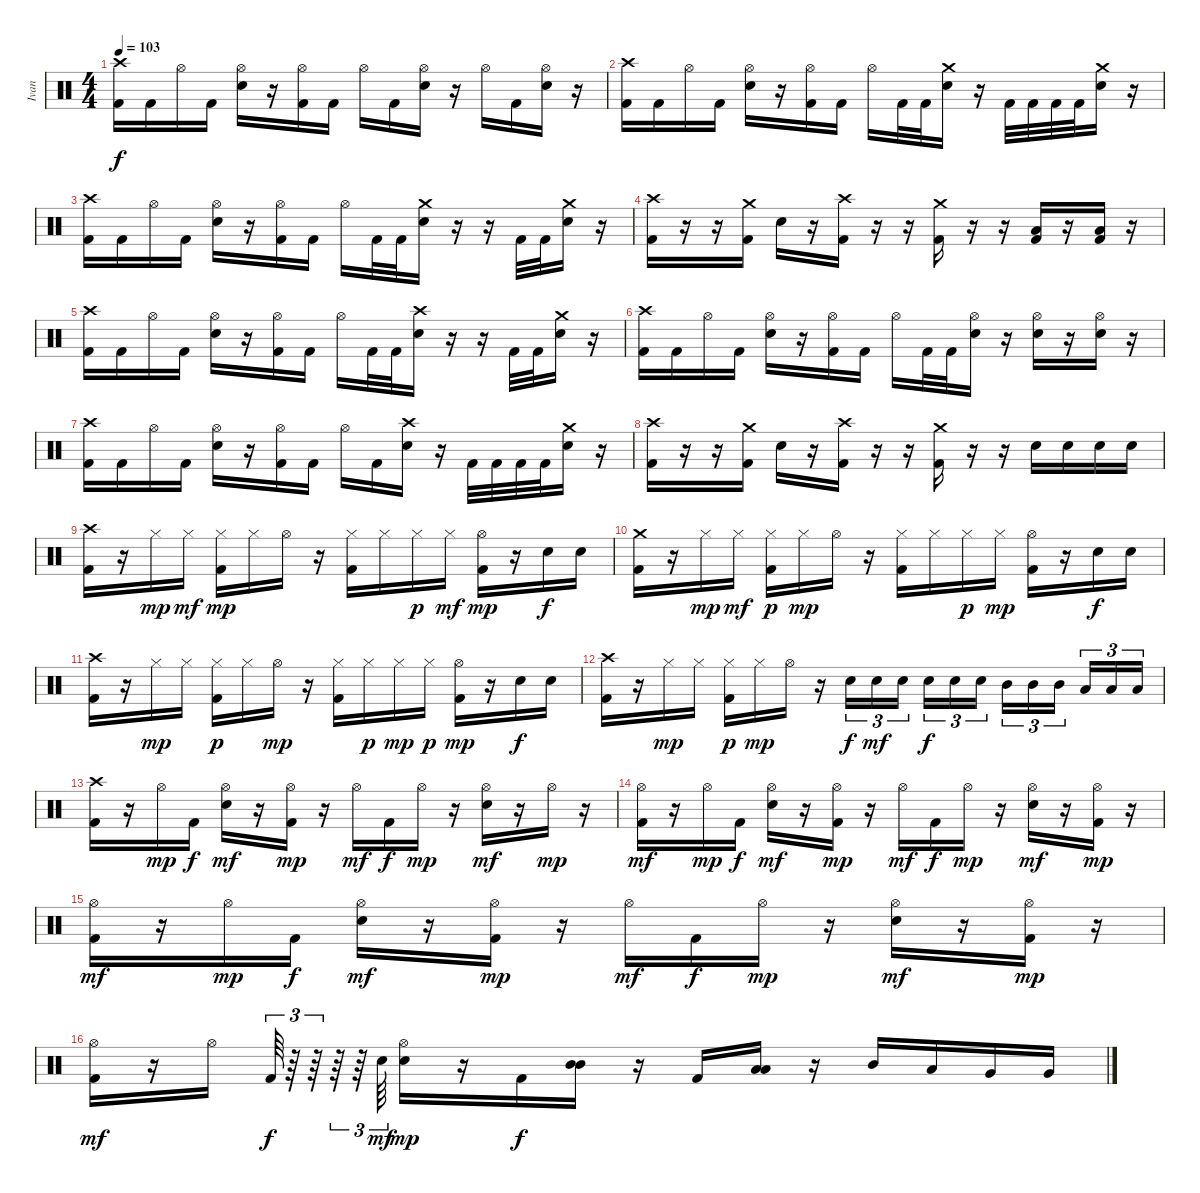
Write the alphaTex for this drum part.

\track ("Ivan" "Ivan") {instrument percussion}
\staff {score}
\articulation defaults
\ts (4 4)
\tempo 103
\clef neutral
\ks c
("Kick (hit) 2" "Crash high (hit)").16{dy f} "Kick (hit) 2".16 "Hi-Hat (open)".16 "Kick (hit) 2".16 ("Snare (hit) 2" "Hi-Hat (open)").16 r.16 ("Kick (hit) 2" "Hi-Hat (open)").16 "Kick (hit) 2".16 "Hi-Hat (open)".16 "Kick (hit) 2".16 ("Snare (hit) 2" "Hi-Hat (open)").16 r.16 "Hi-Hat (open)".16 "Kick (hit) 2".16 ("Snare (hit) 2" "Hi-Hat (open)").16 r.16 |
("Crash high (hit)" "Kick (hit) 2").16 "Kick (hit) 2".16 "Hi-Hat (open)".16 "Kick (hit) 2".16 ("Hi-Hat (open)" "Snare (hit) 2").16 r.16 ("Hi-Hat (open)" "Kick (hit) 2").16 "Kick (hit) 2".16 "Hi-Hat (open)".16 "Kick (hit) 2".32 "Kick (hit) 2".32 ("Crash medium (hit)" "Snare (hit) 2").16 r.16 "Kick (hit) 2".32 "Kick (hit) 2".32 "Kick (hit) 2".32 "Kick (hit) 2".32 ("Crash medium (hit)" "Snare (hit) 2").16 r.16 |
("Kick (hit) 2" "Crash high (hit)").16 "Kick (hit) 2".16 "Hi-Hat (open)".16 "Kick (hit) 2".16 ("Snare (hit) 2" "Hi-Hat (open)").16 r.16 ("Kick (hit) 2" "Hi-Hat (open)").16 "Kick (hit) 2".16 "Hi-Hat (open)".16 "Kick (hit) 2".32 "Kick (hit) 2".32 ("Snare (hit) 2" "Crash medium (hit)").16 r.16 r.16 "Kick (hit) 2".32 "Kick (hit) 2".32 ("Snare (hit) 2" "Crash medium (hit)").16 r.16 |
("Kick (hit) 2" "Crash high (hit)").16 r.16 r.16 ("Kick (hit) 2" "Crash medium (hit)").16 "Snare (hit) 2".16 r.16 ("Kick (hit) 2" "Crash high (hit)").16 r.16 r.16 ("Kick (hit) 2" "Crash medium (hit)").16 r.16 r.16 ("Low Floor Tom (hit)" "Kick (hit) 2").16 r.16 ("Low Floor Tom (hit)" "Kick (hit) 2").16 r.16 |
("Kick (hit) 2" "Crash high (hit)").16 "Kick (hit) 2".16 "Hi-Hat (open)".16 "Kick (hit) 2".16 ("Snare (hit) 2" "Hi-Hat (open)").16 r.16 ("Kick (hit) 2" "Hi-Hat (open)").16 "Kick (hit) 2".16 "Hi-Hat (open)".16 "Kick (hit) 2".32 "Kick (hit) 2".32 ("Snare (hit) 2" "Crash high (hit)").16 r.16 r.16 "Kick (hit) 2".32 "Kick (hit) 2".32 ("Snare (hit) 2" "Crash medium (hit)").16 r.16 |
("Crash high (hit)" "Kick (hit) 2").16 "Kick (hit) 2".16 "Hi-Hat (open)".16 "Kick (hit) 2".16 ("Hi-Hat (open)" "Snare (hit) 2").16 r.16 ("Hi-Hat (open)" "Kick (hit) 2").16 "Kick (hit) 2".16 "Hi-Hat (open)".16 "Kick (hit) 2".32 "Kick (hit) 2".32 ("Hi-Hat (open)" "Snare (hit) 2").16 r.16 ("Hi-Hat (open)" "Snare (hit) 2").16 r.16 ("Hi-Hat (open)" "Snare (hit) 2").16 r.16 |
("Kick (hit) 2" "Crash high (hit)").16 "Kick (hit) 2".16 "Hi-Hat (open)".16 "Kick (hit) 2".16 ("Snare (hit) 2" "Hi-Hat (open)").16 r.16 ("Kick (hit) 2" "Hi-Hat (open)").16 "Kick (hit) 2".16 "Hi-Hat (open)".16 "Kick (hit) 2".16 ("Snare (hit) 2" "Crash high (hit)").16 r.16 "Kick (hit) 2".32 "Kick (hit) 2".32 "Kick (hit) 2".32 "Kick (hit) 2".32 ("Snare (hit) 2" "Crash medium (hit)").16 r.16 |
("Kick (hit) 2" "Crash high (hit)").16 r.16 r.16 ("Kick (hit) 2" "Crash medium (hit)").16 "Snare (hit) 2".16 r.16 ("Kick (hit) 2" "Crash high (hit)").16 r.16 r.16 ("Kick (hit) 2" "Crash medium (hit)").16 r.16 r.16 "Snare (hit) 2".16 "Snare (hit) 2".16 "Snare (hit) 2".16 "Snare (hit) 2".16 |
("Crash high (hit)" "Kick (hit) 2").16 r.16 "Hi-Hat (closed)".16{dy mp} "Hi-Hat (closed)".16{dy mf} ("Hi-Hat (closed)" "Kick (hit) 2").16{dy mp} "Hi-Hat (closed)".16 "Hi-Hat (open)".16 r.16 ("Hi-Hat (closed)" "Kick (hit) 2").16 "Hi-Hat (closed)".16 "Hi-Hat (closed)".16{dy p} "Hi-Hat (closed)".16{dy mf} ("Hi-Hat (open)" "Kick (hit) 2").16{dy mp} r.16 "Snare (hit) 2".16{dy f} "Snare (hit) 2".16 |
("Crash medium (hit)" "Kick (hit) 2").16 r.16 "Hi-Hat (closed)".16{dy mp} "Hi-Hat (closed)".16{dy mf} ("Hi-Hat (closed)" "Kick (hit) 2").16{dy p} "Hi-Hat (closed)".16{dy mp} "Hi-Hat (open)".16 r.16 ("Hi-Hat (closed)" "Kick (hit) 2").16 "Hi-Hat (closed)".16 "Hi-Hat (closed)".16{dy p} "Hi-Hat (closed)".16{dy mp} ("Hi-Hat (open)" "Kick (hit) 2").16 r.16 "Snare (hit) 2".16{dy f} "Snare (hit) 2".16 |
("Crash high (hit)" "Kick (hit) 2").16 r.16 "Hi-Hat (closed)".16{dy mp} "Hi-Hat (closed)".16 ("Hi-Hat (closed)" "Kick (hit) 2").16{dy p} "Hi-Hat (closed)".16 "Hi-Hat (open)".16{dy mp} r.16 ("Hi-Hat (closed)" "Kick (hit) 2").16 "Hi-Hat (closed)".16{dy p} "Hi-Hat (closed)".16{dy mp} "Hi-Hat (closed)".16{dy p} ("Hi-Hat (open)" "Kick (hit) 2").16{dy mp} r.16 "Snare (hit) 2".16{dy f} "Snare (hit) 2".16 |
("Crash high (hit)" "Kick (hit) 2").16 r.16 "Hi-Hat (closed)".16{dy mp} "Hi-Hat (closed)".16 ("Hi-Hat (closed)" "Kick (hit) 2").16{dy p} "Hi-Hat (closed)".16{dy mp} "Hi-Hat (open)".16 r.16 "Snare (hit) 2".16{tu (3 2) dy f} "Snare (hit) 2".16{tu (3 2) dy mf} "Snare (hit) 2".16{tu (3 2)} "Snare (hit) 2".16{tu (3 2) dy f} "Snare (hit) 2".16{tu (3 2)} "Snare (hit) 2".16{tu (3 2)} "Mid Tom (hit)".16{tu (3 2)} "Mid Tom (hit)".16{tu (3 2)} "Mid Tom (hit)".16{tu (3 2)} "Low Tom (hit)".16{tu (3 2)} "Low Tom (hit)".16{tu (3 2)} "Low Tom (hit)".16{tu (3 2)} |
("Crash high (hit)" "Kick (hit) 2").16 r.16 "Hi-Hat (open)".16{dy mp} "Kick (hit) 2".16{dy f} ("Hi-Hat (open)" "Snare (hit) 2").16{dy mf} r.16 ("Hi-Hat (open)" "Kick (hit) 2").16{dy mp} r.16 "Hi-Hat (open)".16{dy mf} "Kick (hit) 2".16{dy f} "Hi-Hat (open)".16{dy mp} r.16 ("Hi-Hat (open)" "Snare (hit) 2").16{dy mf} r.16 "Hi-Hat (open)".16{dy mp} r.16 |
("Hi-Hat (open)" "Kick (hit) 2").16{dy mf} r.16 "Hi-Hat (open)".16{dy mp} "Kick (hit) 2".16{dy f} ("Hi-Hat (open)" "Snare (hit) 2").16{dy mf} r.16 ("Hi-Hat (open)" "Kick (hit) 2").16{dy mp} r.16 "Hi-Hat (open)".16{dy mf} "Kick (hit) 2".16{dy f} "Hi-Hat (open)".16{dy mp} r.16 ("Hi-Hat (open)" "Snare (hit) 2").16{dy mf} r.16 ("Hi-Hat (open)" "Kick (hit) 2").16{dy mp} r.16 |
("Hi-Hat (open)" "Kick (hit) 2").16{dy mf} r.16 "Hi-Hat (open)".16{dy mp} "Kick (hit) 2".16{dy f} ("Hi-Hat (open)" "Snare (hit) 2").16{dy mf} r.16 ("Hi-Hat (open)" "Kick (hit) 2").16{dy mp} r.16 "Hi-Hat (open)".16{dy mf} "Kick (hit) 2".16{dy f} "Hi-Hat (open)".16{dy mp} r.16 ("Hi-Hat (open)" "Snare (hit) 2").16{dy mf} r.16 ("Hi-Hat (open)" "Kick (hit) 2").16{dy mp} r.16 |
("Hi-Hat (open)" "Kick (hit) 2").16{dy mf} r.16 "Hi-Hat (open)".16 "Kick (hit) 2".64{tu (3 2) dy f} r.64{tu (3 2)} r.64{tu (3 2)} r.64{tu (3 2)} r.64{tu (3 2)} "Snare (hit) 2".64{tu (3 2) dy mf} ("Hi-Hat (open)" "Snare (hit) 2").16{dy mp} r.16 "Kick (hit) 2".16{dy f} ("Mid Tom (hit)" "Mid Tom (hit)").16 r.16 "Kick (hit) 2".16 ("Low Tom (hit)" "Low Tom (hit)").16 r.16 "Mid Tom (hit)".16 "Low Tom (hit)".16 "Very Low Tom (hit)".16 "Very Low Tom (hit)".16
